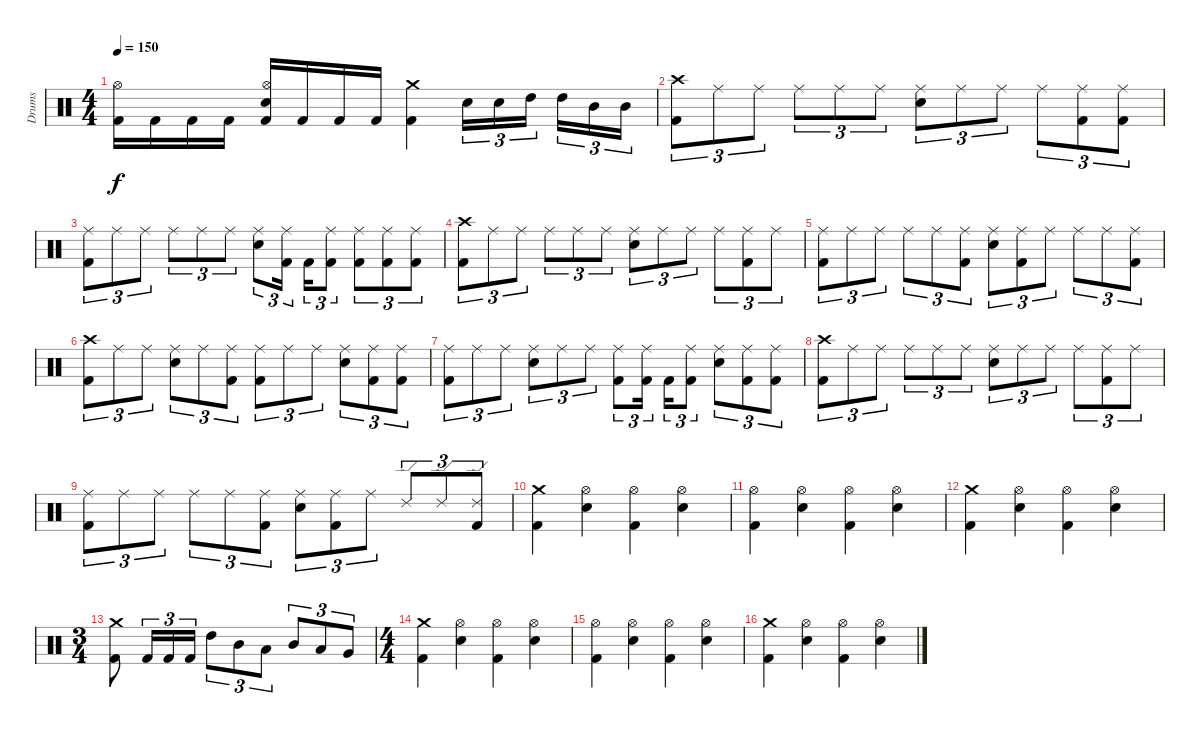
\track ("Drums" "Drums") {instrument percussion}
\staff {score}
\articulation defaults
\ts (4 4)
\tempo 150
\clef neutral
\ks c
("Kick (hit) 2" "Hi-Hat (open)").16{dy f} "Kick (hit) 2".16 "Kick (hit) 2".16 "Kick (hit) 2".16 ("Kick (hit) 2" "Electric Snare (hit)" "Hi-Hat (open)").16 "Kick (hit) 2".16 "Kick (hit) 2".16 "Kick (hit) 2".16 ("Kick (hit) 2" "Crash medium (hit)").4 "Electric Snare (hit)".16{tu (3 2)} "Electric Snare (hit)".16{tu (3 2)} "High Tom (hit)".16{tu (3 2)} "High Tom (hit)".16{tu (3 2)} "Mid Tom (hit)".16{tu (3 2)} "Mid Tom (hit)".16{tu (3 2)} |
("Kick (hit) 2" "Crash high (hit)").8{tu (3 2)} "Ride (middle)".8{tu (3 2)} "Ride (middle)".8{tu (3 2)} "Ride (middle)".8{tu (3 2)} "Ride (middle)".8{tu (3 2)} "Ride (middle)".8{tu (3 2)} ("Electric Snare (hit)" "Ride (middle)").8{tu (3 2)} "Ride (middle)".8{tu (3 2)} "Ride (middle)".8{tu (3 2)} "Ride (middle)".8{tu (3 2)} ("Kick (hit) 2" "Ride (middle)").8{tu (3 2)} ("Kick (hit) 2" "Ride (middle)").8{tu (3 2)} |
("Kick (hit) 2" "Ride (middle)").8{tu (3 2)} "Ride (middle)".8{tu (3 2)} "Ride (middle)".8{tu (3 2)} "Ride (middle)".8{tu (3 2)} "Ride (middle)".8{tu (3 2)} "Ride (middle)".8{tu (3 2)} ("Electric Snare (hit)" "Ride (middle)").8{tu (3 2)} ("Kick (hit) 2" "Ride (middle)").16{tu (3 2)} "Kick (hit) 2".16{tu (3 2)} ("Kick (hit) 2" "Ride (middle)").8{tu (3 2)} ("Kick (hit) 2" "Ride (middle)").8{tu (3 2)} ("Kick (hit) 2" "Ride (middle)").8{tu (3 2)} ("Kick (hit) 2" "Ride (middle)").8{tu (3 2)} |
("Kick (hit) 2" "Crash high (hit)").8{tu (3 2)} "Ride (middle)".8{tu (3 2)} "Ride (middle)".8{tu (3 2)} "Ride (middle)".8{tu (3 2)} "Ride (middle)".8{tu (3 2)} "Ride (middle)".8{tu (3 2)} ("Electric Snare (hit)" "Ride (middle)").8{tu (3 2)} "Ride (middle)".8{tu (3 2)} "Ride (middle)".8{tu (3 2)} "Ride (middle)".8{tu (3 2)} ("Kick (hit) 2" "Ride (middle)").8{tu (3 2)} "Ride (middle)".8{tu (3 2)} |
("Kick (hit) 2" "Ride (middle)").8{tu (3 2)} "Ride (middle)".8{tu (3 2)} "Ride (middle)".8{tu (3 2)} "Ride (middle)".8{tu (3 2)} "Ride (middle)".8{tu (3 2)} ("Kick (hit) 2" "Ride (middle)").8{tu (3 2)} ("Electric Snare (hit)" "Ride (middle)").8{tu (3 2)} ("Kick (hit) 2" "Ride (middle)").8{tu (3 2)} "Ride (middle)".8{tu (3 2)} "Ride (middle)".8{tu (3 2)} "Ride (middle)".8{tu (3 2)} ("Kick (hit) 2" "Ride (middle)").8{tu (3 2)} |
("Kick (hit) 2" "Crash high (hit)").8{tu (3 2)} "Ride (middle)".8{tu (3 2)} "Ride (middle)".8{tu (3 2)} ("Electric Snare (hit)" "Ride (middle)").8{tu (3 2)} "Ride (middle)".8{tu (3 2)} ("Kick (hit) 2" "Ride (middle)").8{tu (3 2)} ("Kick (hit) 2" "Ride (middle)").8{tu (3 2)} "Ride (middle)".8{tu (3 2)} "Ride (middle)".8{tu (3 2)} ("Electric Snare (hit)" "Ride (middle)").8{tu (3 2)} ("Kick (hit) 2" "Ride (middle)").8{tu (3 2)} ("Kick (hit) 2" "Ride (middle)").8{tu (3 2)} |
("Kick (hit) 2" "Ride (middle)").8{tu (3 2)} "Ride (middle)".8{tu (3 2)} "Ride (middle)".8{tu (3 2)} ("Electric Snare (hit)" "Ride (middle)").8{tu (3 2)} "Ride (middle)".8{tu (3 2)} "Ride (middle)".8{tu (3 2)} ("Kick (hit) 2" "Ride (middle)").8{tu (3 2)} ("Kick (hit) 2" "Ride (middle)").16{tu (3 2)} "Kick (hit) 2".16{tu (3 2)} ("Kick (hit) 2" "Ride (middle)").8{tu (3 2)} ("Electric Snare (hit)" "Ride (middle)").8{tu (3 2)} ("Kick (hit) 2" "Ride (middle)").8{tu (3 2)} ("Kick (hit) 2" "Ride (middle)").8{tu (3 2)} |
("Kick (hit) 2" "Crash high (hit)").8{tu (3 2)} "Ride (middle)".8{tu (3 2)} "Ride (middle)".8{tu (3 2)} "Ride (middle)".8{tu (3 2)} "Ride (middle)".8{tu (3 2)} "Ride (middle)".8{tu (3 2)} ("Electric Snare (hit)" "Ride (middle)").8{tu (3 2)} "Ride (middle)".8{tu (3 2)} "Ride (middle)".8{tu (3 2)} "Ride (middle)".8{tu (3 2)} ("Kick (hit) 2" "Ride (middle)").8{tu (3 2)} "Ride (middle)".8{tu (3 2)} |
("Kick (hit) 2" "Ride (middle)").8{tu (3 2)} "Ride (middle)".8{tu (3 2)} "Ride (middle)".8{tu (3 2)} "Ride (middle)".8{tu (3 2)} "Ride (middle)".8{tu (3 2)} ("Kick (hit) 2" "Ride (middle)").8{tu (3 2)} ("Electric Snare (hit)" "Ride (middle)").8{tu (3 2)} ("Kick (hit) 2" "Ride (middle)").8{tu (3 2)} "Ride (middle)".8{tu (3 2)} "Ride (edge) 2".8{tu (3 2)} "Ride (edge) 2".8{tu (3 2)} ("Kick (hit) 2" "Ride (edge) 2").8{tu (3 2)} |
("Kick (hit) 2" "Crash medium (hit)").4 ("Electric Snare (hit)" "Hi-Hat (open)").4 ("Kick (hit) 2" "Hi-Hat (open)").4 ("Electric Snare (hit)" "Hi-Hat (open)").4 |
("Kick (hit) 2" "Hi-Hat (open)").4 ("Electric Snare (hit)" "Hi-Hat (open)").4 ("Kick (hit) 2" "Hi-Hat (open)").4 ("Electric Snare (hit)" "Hi-Hat (open)").4 |
("Kick (hit) 2" "Crash medium (hit)").4 ("Electric Snare (hit)" "Hi-Hat (open)").4 ("Kick (hit) 2" "Hi-Hat (open)").4 ("Electric Snare (hit)" "Hi-Hat (open)").4 |
\ts (3 4)
("Kick (hit) 2" "Crash medium (hit)").8 "Kick (hit) 2".16{tu (3 2)} "Kick (hit) 2".16{tu (3 2)} "Kick (hit) 2".16{tu (3 2)} "High Tom (hit)".8{tu (3 2)} "Mid Tom (hit)".8{tu (3 2)} "Low Tom (hit)".8{tu (3 2)} "Mid Tom (hit)".8{tu (3 2)} "Low Tom (hit)".8{tu (3 2)} "Very Low Tom (hit)".8{tu (3 2)} |
\ts (4 4)
("Kick (hit) 2" "Crash medium (hit)").4 ("Electric Snare (hit)" "Hi-Hat (open)").4 ("Kick (hit) 2" "Hi-Hat (open)").4 ("Electric Snare (hit)" "Hi-Hat (open)").4 |
("Kick (hit) 2" "Hi-Hat (open)").4 ("Electric Snare (hit)" "Hi-Hat (open)").4 ("Kick (hit) 2" "Hi-Hat (open)").4 ("Electric Snare (hit)" "Hi-Hat (open)").4 |
("Kick (hit) 2" "Crash medium (hit)").4 ("Electric Snare (hit)" "Hi-Hat (open)").4 ("Kick (hit) 2" "Hi-Hat (open)").4 ("Electric Snare (hit)" "Hi-Hat (open)").4
